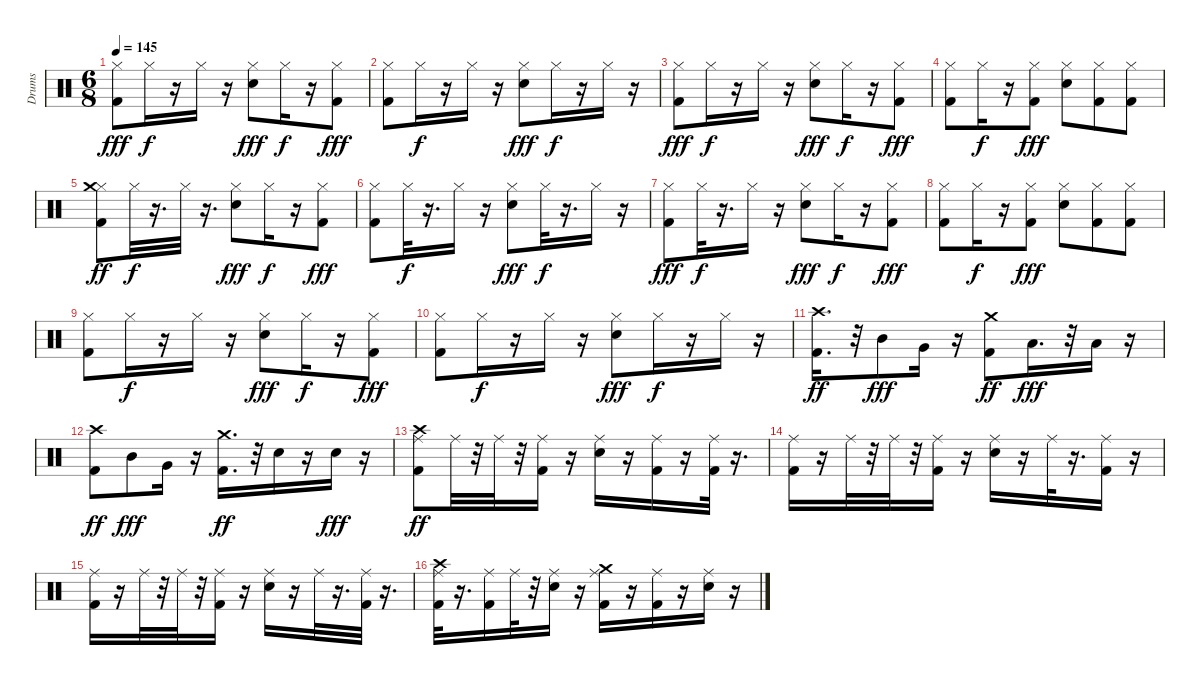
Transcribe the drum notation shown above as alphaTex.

\track ("Drums" "Drums") {instrument percussion}
\staff {score}
\articulation defaults
\ts (6 8)
\tempo 145
\clef neutral
\ks c
("Kick (hit) 2" "Hi-Hat (closed)").8{dy fff} "Hi-Hat (closed)".16{dy f} r.16 "Hi-Hat (closed)".16 r.16 ("Snare (hit) 2" "Hi-Hat (closed)").8{dy fff} "Hi-Hat (closed)".16{dy f} r.16 ("Kick (hit) 2" "Hi-Hat (closed)").8{dy fff} |
("Kick (hit) 2" "Hi-Hat (closed)").8 "Hi-Hat (closed)".16{dy f} r.16 "Hi-Hat (closed)".16 r.16 ("Snare (hit) 2" "Hi-Hat (closed)").8{dy fff} "Hi-Hat (closed)".16{dy f} r.16 "Hi-Hat (closed)".16 r.16 |
("Kick (hit) 2" "Hi-Hat (closed)").8{dy fff} "Hi-Hat (closed)".16{dy f} r.16 "Hi-Hat (closed)".16 r.16 ("Snare (hit) 2" "Hi-Hat (closed)").8{dy fff} "Hi-Hat (closed)".16{dy f} r.16 ("Kick (hit) 2" "Hi-Hat (closed)").8{dy fff} |
("Kick (hit) 2" "Hi-Hat (closed)").8 "Hi-Hat (closed)".16{dy f} r.16 ("Kick (hit) 2" "Hi-Hat (closed)").8{dy fff} ("Snare (hit) 2" "Hi-Hat (closed)").8 ("Kick (hit) 2" "Hi-Hat (closed)").8 ("Kick (hit) 2" "Hi-Hat (closed)").8 |
("Kick (hit) 2" "Hi-Hat (closed)" "Crash medium (hit)").8{dy ff} "Hi-Hat (closed)".32{dy f} r.16{d} "Hi-Hat (closed)".32 r.16{d} ("Snare (hit) 2" "Hi-Hat (closed)").8{dy fff} "Hi-Hat (closed)".16{dy f} r.16 ("Kick (hit) 2" "Hi-Hat (closed)").8{dy fff} |
("Kick (hit) 2" "Hi-Hat (closed)").8 "Hi-Hat (closed)".32{dy f} r.16{d} "Hi-Hat (closed)".16 r.16 ("Snare (hit) 2" "Hi-Hat (closed)").8{dy fff} "Hi-Hat (closed)".32{dy f} r.16{d} "Hi-Hat (closed)".16 r.16 |
("Kick (hit) 2" "Hi-Hat (closed)").8{dy fff} "Hi-Hat (closed)".32{dy f} r.16{d} "Hi-Hat (closed)".16 r.16 ("Snare (hit) 2" "Hi-Hat (closed)").8{dy fff} "Hi-Hat (closed)".16{dy f} r.16 ("Kick (hit) 2" "Hi-Hat (closed)").8{dy fff} |
("Kick (hit) 2" "Hi-Hat (closed)").8 "Hi-Hat (closed)".16{dy f} r.16 ("Kick (hit) 2" "Hi-Hat (closed)").8{dy fff} ("Snare (hit) 2" "Hi-Hat (closed)").8 ("Kick (hit) 2" "Hi-Hat (closed)").8 ("Kick (hit) 2" "Hi-Hat (closed)").8 |
("Kick (hit) 2" "Hi-Hat (closed)").8 "Hi-Hat (closed)".16{dy f} r.16 "Hi-Hat (closed)".16 r.16 ("Snare (hit) 2" "Hi-Hat (closed)").8{dy fff} "Hi-Hat (closed)".16{dy f} r.16 ("Kick (hit) 2" "Hi-Hat (closed)").8{dy fff} |
("Kick (hit) 2" "Hi-Hat (closed)").8 "Hi-Hat (closed)".16{dy f} r.16 "Hi-Hat (closed)".16 r.16 ("Snare (hit) 2" "Hi-Hat (closed)").8{dy fff} "Hi-Hat (closed)".16{dy f} r.16 "Hi-Hat (closed)".16 r.16 |
("Kick (hit) 2" "Crash high (hit)").16{d dy ff} r.32 "Mid Tom (hit)".8{dy fff} "Very Low Tom (hit)".16 r.16 ("Kick (hit) 2" "Crash medium (hit)").8{dy ff} "Low Tom (hit)".16{d dy fff} r.32 "Low Floor Tom (hit)".16 r.16 |
("Kick (hit) 2" "Crash high (hit)").8{dy ff} "Mid Tom (hit)".8{dy fff} "Very Low Tom (hit)".16 r.16 ("Kick (hit) 2" "Crash medium (hit)").16{d dy ff} r.32 "Snare (hit) 2".16 r.16 "Snare (hit) 2".16{dy fff} r.16 |
("Kick (hit) 2" "Ride (middle)" "Crash high (hit)").8{dy ff} "Ride (middle)".32 r.32 "Ride (middle)".32 r.32 ("Kick (hit) 2" "Ride (middle)").16 r.16 ("Snare (hit) 2" "Ride (middle)").16 r.16 ("Kick (hit) 2" "Ride (middle)").16 r.16 ("Kick (hit) 2" "Ride (middle)").32 r.16{d} |
("Kick (hit) 2" "Ride (middle)").16 r.16 "Ride (middle)".32 r.32 "Ride (middle)".32 r.32 ("Kick (hit) 2" "Ride (middle)").16 r.16 ("Snare (hit) 2" "Ride (middle)").16 r.16 "Ride (middle)".32 r.16{d} ("Kick (hit) 2" "Ride (middle)").16 r.16 |
("Kick (hit) 2" "Ride (middle)").16 r.16 "Ride (middle)".32 r.32 "Ride (middle)".32 r.32 ("Kick (hit) 2" "Ride (middle)").16 r.16 ("Snare (hit) 2" "Ride (middle)").16 r.16 "Ride (middle)".32 r.16{d} ("Kick (hit) 2" "Ride (middle)").32 r.16{d} |
("Kick (hit) 2" "Ride (middle)" "Crash high (hit)").32 r.16{d} ("Kick (hit) 2" "Ride (middle)").16 "Ride (middle)".32 r.32 ("Snare (hit) 2" "Ride (middle)").16 r.16 ("Kick (hit) 2" "Ride (middle)" "Crash medium (hit)").16 r.16 ("Kick (hit) 2" "Ride (middle)").16 r.16 ("Snare (hit) 2" "Ride (middle)").16 r.16
